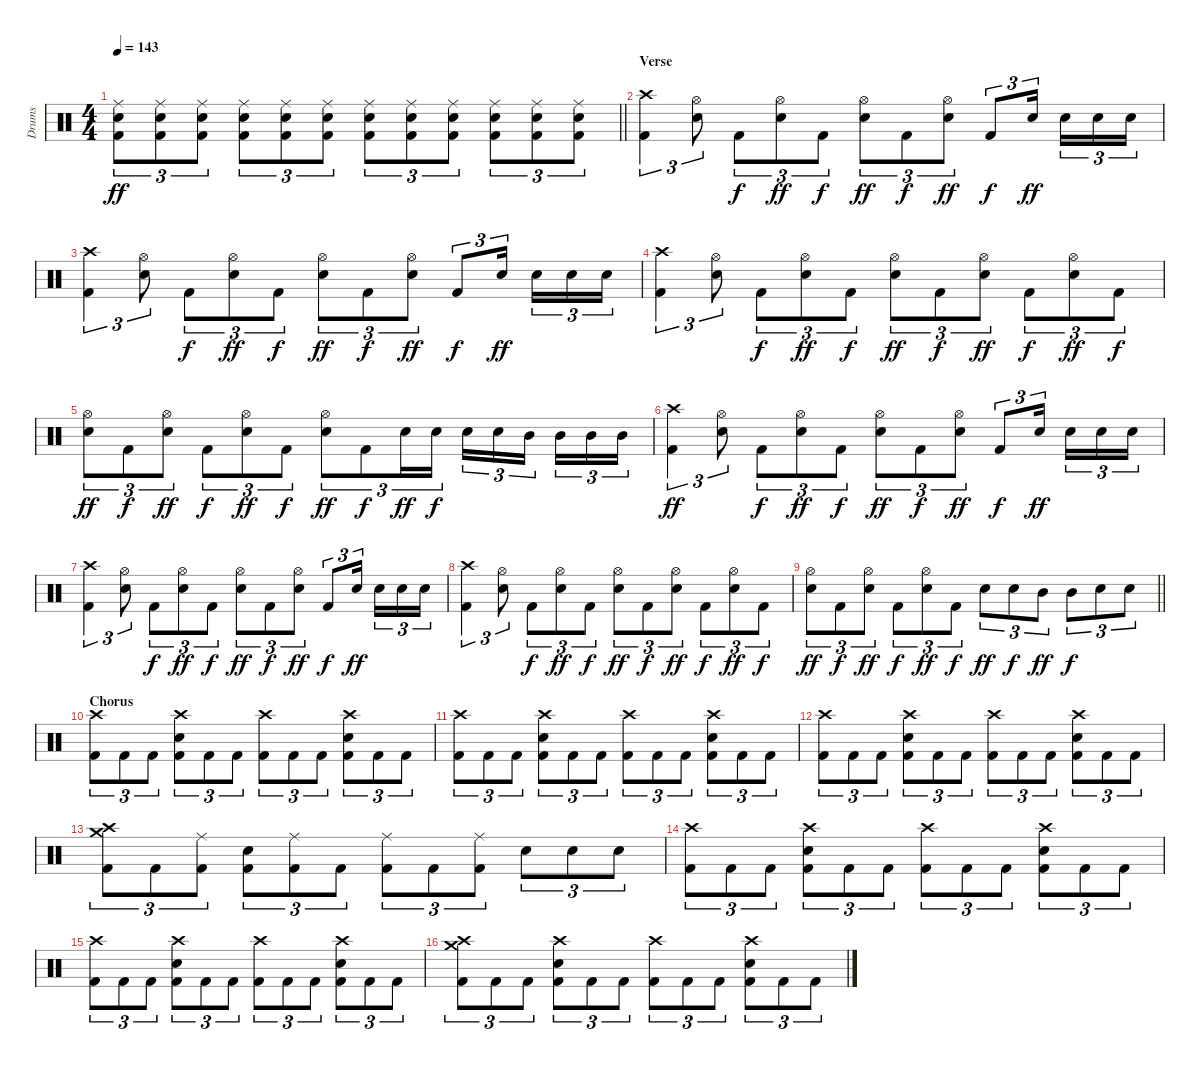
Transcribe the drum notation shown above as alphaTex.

\track ("Drums" "Drums") {instrument percussion}
\staff {score}
\articulation defaults
\ts (4 4)
\tempo 143
\clef neutral
\barLineRight lightlight
\ks c
("Ride (middle)" "Snare (hit) 2" "Kick (hit) 2").8{tu (3 2) dy ff} ("Ride (middle)" "Snare (hit) 2" "Kick (hit) 2").8{tu (3 2)} ("Ride (middle)" "Snare (hit) 2" "Kick (hit) 2").8{tu (3 2)} ("Ride (middle)" "Snare (hit) 2" "Kick (hit) 2").8{tu (3 2)} ("Ride (middle)" "Snare (hit) 2" "Kick (hit) 2").8{tu (3 2)} ("Ride (middle)" "Snare (hit) 2" "Kick (hit) 2").8{tu (3 2)} ("Ride (middle)" "Snare (hit) 2" "Kick (hit) 2").8{tu (3 2)} ("Ride (middle)" "Snare (hit) 2" "Kick (hit) 2").8{tu (3 2)} ("Ride (middle)" "Snare (hit) 2" "Kick (hit) 2").8{tu (3 2)} ("Ride (middle)" "Snare (hit) 2" "Kick (hit) 2").8{tu (3 2)} ("Ride (middle)" "Snare (hit) 2" "Kick (hit) 2").8{tu (3 2)} ("Ride (middle)" "Snare (hit) 2" "Kick (hit) 2").8{tu (3 2)} |
\section ("" "Verse")
("Crash high (hit)" "Kick (hit) 2").4{tu (3 2)} ("Hi-Hat (open)" "Snare (hit) 2").8{tu (3 2)} "Kick (hit) 2".8{tu (3 2) dy f} ("Hi-Hat (open)" "Snare (hit) 2").8{tu (3 2) dy ff} "Kick (hit) 2".8{tu (3 2) dy f} ("Hi-Hat (open)" "Snare (hit) 2").8{tu (3 2) dy ff} "Kick (hit) 2".8{tu (3 2) dy f} ("Hi-Hat (open)" "Snare (hit) 2").8{tu (3 2) dy ff} "Kick (hit) 2".8{tu (3 2) dy f} "Snare (hit) 2".16{tu (3 2) dy ff beam splitsecondary} "Snare (hit) 2".16{tu (3 2)} "Snare (hit) 2".16{tu (3 2)} "Snare (hit) 2".16{tu (3 2)} |
("Crash high (hit)" "Kick (hit) 2").4{tu (3 2)} ("Hi-Hat (open)" "Snare (hit) 2").8{tu (3 2)} "Kick (hit) 2".8{tu (3 2) dy f} ("Hi-Hat (open)" "Snare (hit) 2").8{tu (3 2) dy ff} "Kick (hit) 2".8{tu (3 2) dy f} ("Hi-Hat (open)" "Snare (hit) 2").8{tu (3 2) dy ff} "Kick (hit) 2".8{tu (3 2) dy f} ("Hi-Hat (open)" "Snare (hit) 2").8{tu (3 2) dy ff} "Kick (hit) 2".8{tu (3 2) dy f} "Snare (hit) 2".16{tu (3 2) dy ff beam splitsecondary} "Snare (hit) 2".16{tu (3 2)} "Snare (hit) 2".16{tu (3 2)} "Snare (hit) 2".16{tu (3 2)} |
("Crash high (hit)" "Kick (hit) 2").4{tu (3 2)} ("Hi-Hat (open)" "Snare (hit) 2").8{tu (3 2)} "Kick (hit) 2".8{tu (3 2) dy f} ("Hi-Hat (open)" "Snare (hit) 2").8{tu (3 2) dy ff} "Kick (hit) 2".8{tu (3 2) dy f} ("Hi-Hat (open)" "Snare (hit) 2").8{tu (3 2) dy ff} "Kick (hit) 2".8{tu (3 2) dy f} ("Hi-Hat (open)" "Snare (hit) 2").8{tu (3 2) dy ff} "Kick (hit) 2".8{tu (3 2) dy f} ("Hi-Hat (open)" "Snare (hit) 2").8{tu (3 2) dy ff} "Kick (hit) 2".8{tu (3 2) dy f} |
("Hi-Hat (open)" "Snare (hit) 2").8{tu (3 2) dy ff} "Kick (hit) 2".8{tu (3 2) dy f} ("Hi-Hat (open)" "Snare (hit) 2").8{tu (3 2) dy ff} "Kick (hit) 2".8{tu (3 2) dy f} ("Hi-Hat (open)" "Snare (hit) 2").8{tu (3 2) dy ff} "Kick (hit) 2".8{tu (3 2) dy f} ("Hi-Hat (open)" "Snare (hit) 2").8{tu (3 2) dy ff} "Kick (hit) 2".8{tu (3 2) dy f} "Snare (hit) 2".16{tu (3 2) dy ff} "Snare (hit) 2".16{tu (3 2) dy f} "Snare (hit) 2".16{tu (3 2)} "Snare (hit) 2".16{tu (3 2)} "Mid Tom (hit)".16{tu (3 2) beam splitsecondary} "Mid Tom (hit)".16{tu (3 2)} "Mid Tom (hit)".16{tu (3 2)} "Mid Tom (hit)".16{tu (3 2)} |
("Crash high (hit)" "Kick (hit) 2").4{tu (3 2) dy ff} ("Hi-Hat (open)" "Snare (hit) 2").8{tu (3 2)} "Kick (hit) 2".8{tu (3 2) dy f} ("Hi-Hat (open)" "Snare (hit) 2").8{tu (3 2) dy ff} "Kick (hit) 2".8{tu (3 2) dy f} ("Hi-Hat (open)" "Snare (hit) 2").8{tu (3 2) dy ff} "Kick (hit) 2".8{tu (3 2) dy f} ("Hi-Hat (open)" "Snare (hit) 2").8{tu (3 2) dy ff} "Kick (hit) 2".8{tu (3 2) dy f} "Snare (hit) 2".16{tu (3 2) dy ff beam splitsecondary} "Snare (hit) 2".16{tu (3 2)} "Snare (hit) 2".16{tu (3 2)} "Snare (hit) 2".16{tu (3 2)} |
("Crash high (hit)" "Kick (hit) 2").4{tu (3 2)} ("Hi-Hat (open)" "Snare (hit) 2").8{tu (3 2)} "Kick (hit) 2".8{tu (3 2) dy f} ("Hi-Hat (open)" "Snare (hit) 2").8{tu (3 2) dy ff} "Kick (hit) 2".8{tu (3 2) dy f} ("Hi-Hat (open)" "Snare (hit) 2").8{tu (3 2) dy ff} "Kick (hit) 2".8{tu (3 2) dy f} ("Hi-Hat (open)" "Snare (hit) 2").8{tu (3 2) dy ff} "Kick (hit) 2".8{tu (3 2) dy f} "Snare (hit) 2".16{tu (3 2) dy ff beam splitsecondary} "Snare (hit) 2".16{tu (3 2)} "Snare (hit) 2".16{tu (3 2)} "Snare (hit) 2".16{tu (3 2)} |
("Crash high (hit)" "Kick (hit) 2").4{tu (3 2)} ("Hi-Hat (open)" "Snare (hit) 2").8{tu (3 2)} "Kick (hit) 2".8{tu (3 2) dy f} ("Hi-Hat (open)" "Snare (hit) 2").8{tu (3 2) dy ff} "Kick (hit) 2".8{tu (3 2) dy f} ("Hi-Hat (open)" "Snare (hit) 2").8{tu (3 2) dy ff} "Kick (hit) 2".8{tu (3 2) dy f} ("Hi-Hat (open)" "Snare (hit) 2").8{tu (3 2) dy ff} "Kick (hit) 2".8{tu (3 2) dy f} ("Hi-Hat (open)" "Snare (hit) 2").8{tu (3 2) dy ff} "Kick (hit) 2".8{tu (3 2) dy f} |
\barLineRight lightlight
("Hi-Hat (open)" "Snare (hit) 2").8{tu (3 2) dy ff} "Kick (hit) 2".8{tu (3 2) dy f} ("Hi-Hat (open)" "Snare (hit) 2").8{tu (3 2) dy ff} "Kick (hit) 2".8{tu (3 2) dy f} ("Hi-Hat (open)" "Snare (hit) 2").8{tu (3 2) dy ff} "Kick (hit) 2".8{tu (3 2) dy f} "Snare (hit) 2".8{tu (3 2) dy ff} "Snare (hit) 2".8{tu (3 2) dy f} "Mid Tom (hit)".8{tu (3 2) dy ff} "Mid Tom (hit)".8{tu (3 2) dy f} "Snare (hit) 2".8{tu (3 2)} "Snare (hit) 2".8{tu (3 2)} |
\section ("" "Chorus")
("Crash high (hit)" "Kick (hit) 2").8{tu (3 2)} "Kick (hit) 2".8{tu (3 2)} "Kick (hit) 2".8{tu (3 2)} ("Crash high (hit)" "Snare (hit) 2" "Kick (hit) 2").8{tu (3 2)} "Kick (hit) 2".8{tu (3 2)} "Kick (hit) 2".8{tu (3 2)} ("Crash high (hit)" "Kick (hit) 2").8{tu (3 2)} "Kick (hit) 2".8{tu (3 2)} "Kick (hit) 2".8{tu (3 2)} ("Crash high (hit)" "Snare (hit) 2" "Kick (hit) 2").8{tu (3 2)} "Kick (hit) 2".8{tu (3 2)} "Kick (hit) 2".8{tu (3 2)} |
("Crash high (hit)" "Kick (hit) 2").8{tu (3 2)} "Kick (hit) 2".8{tu (3 2)} "Kick (hit) 2".8{tu (3 2)} ("Crash high (hit)" "Snare (hit) 2" "Kick (hit) 2").8{tu (3 2)} "Kick (hit) 2".8{tu (3 2)} "Kick (hit) 2".8{tu (3 2)} ("Crash high (hit)" "Kick (hit) 2").8{tu (3 2)} "Kick (hit) 2".8{tu (3 2)} "Kick (hit) 2".8{tu (3 2)} ("Crash high (hit)" "Snare (hit) 2" "Kick (hit) 2").8{tu (3 2)} "Kick (hit) 2".8{tu (3 2)} "Kick (hit) 2".8{tu (3 2)} |
("Crash high (hit)" "Kick (hit) 2").8{tu (3 2)} "Kick (hit) 2".8{tu (3 2)} "Kick (hit) 2".8{tu (3 2)} ("Crash high (hit)" "Snare (hit) 2" "Kick (hit) 2").8{tu (3 2)} "Kick (hit) 2".8{tu (3 2)} "Kick (hit) 2".8{tu (3 2)} ("Crash high (hit)" "Kick (hit) 2").8{tu (3 2)} "Kick (hit) 2".8{tu (3 2)} "Kick (hit) 2".8{tu (3 2)} ("Crash high (hit)" "Snare (hit) 2" "Kick (hit) 2").8{tu (3 2)} "Kick (hit) 2".8{tu (3 2)} "Kick (hit) 2".8{tu (3 2)} |
("Crash high (hit)" "Crash medium (hit)" "Kick (hit) 2").8{tu (3 2)} "Kick (hit) 2".8{tu (3 2)} ("Ride (middle)" "Kick (hit) 2").8{tu (3 2)} ("Snare (hit) 2" "Kick (hit) 2").8{tu (3 2)} ("Ride (middle)" "Kick (hit) 2").8{tu (3 2)} "Kick (hit) 2".8{tu (3 2)} ("Ride (middle)" "Kick (hit) 2").8{tu (3 2)} "Kick (hit) 2".8{tu (3 2)} ("Ride (middle)" "Kick (hit) 2").8{tu (3 2)} "Snare (hit) 2".8{tu (3 2)} "Snare (hit) 2".8{tu (3 2)} "Snare (hit) 2".8{tu (3 2)} |
("Crash high (hit)" "Kick (hit) 2").8{tu (3 2)} "Kick (hit) 2".8{tu (3 2)} "Kick (hit) 2".8{tu (3 2)} ("Crash high (hit)" "Snare (hit) 2" "Kick (hit) 2").8{tu (3 2)} "Kick (hit) 2".8{tu (3 2)} "Kick (hit) 2".8{tu (3 2)} ("Crash high (hit)" "Kick (hit) 2").8{tu (3 2)} "Kick (hit) 2".8{tu (3 2)} "Kick (hit) 2".8{tu (3 2)} ("Crash high (hit)" "Snare (hit) 2" "Kick (hit) 2").8{tu (3 2)} "Kick (hit) 2".8{tu (3 2)} "Kick (hit) 2".8{tu (3 2)} |
("Crash high (hit)" "Kick (hit) 2").8{tu (3 2)} "Kick (hit) 2".8{tu (3 2)} "Kick (hit) 2".8{tu (3 2)} ("Crash high (hit)" "Snare (hit) 2" "Kick (hit) 2").8{tu (3 2)} "Kick (hit) 2".8{tu (3 2)} "Kick (hit) 2".8{tu (3 2)} ("Crash high (hit)" "Kick (hit) 2").8{tu (3 2)} "Kick (hit) 2".8{tu (3 2)} "Kick (hit) 2".8{tu (3 2)} ("Crash high (hit)" "Snare (hit) 2" "Kick (hit) 2").8{tu (3 2)} "Kick (hit) 2".8{tu (3 2)} "Kick (hit) 2".8{tu (3 2)} |
("Crash high (hit)" "Crash medium (hit)" "Kick (hit) 2").8{tu (3 2)} "Kick (hit) 2".8{tu (3 2)} "Kick (hit) 2".8{tu (3 2)} ("Crash high (hit)" "Snare (hit) 2" "Kick (hit) 2").8{tu (3 2)} "Kick (hit) 2".8{tu (3 2)} "Kick (hit) 2".8{tu (3 2)} ("Crash high (hit)" "Kick (hit) 2").8{tu (3 2)} "Kick (hit) 2".8{tu (3 2)} "Kick (hit) 2".8{tu (3 2)} ("Crash high (hit)" "Snare (hit) 2" "Kick (hit) 2").8{tu (3 2)} "Kick (hit) 2".8{tu (3 2)} "Kick (hit) 2".8{tu (3 2)}
